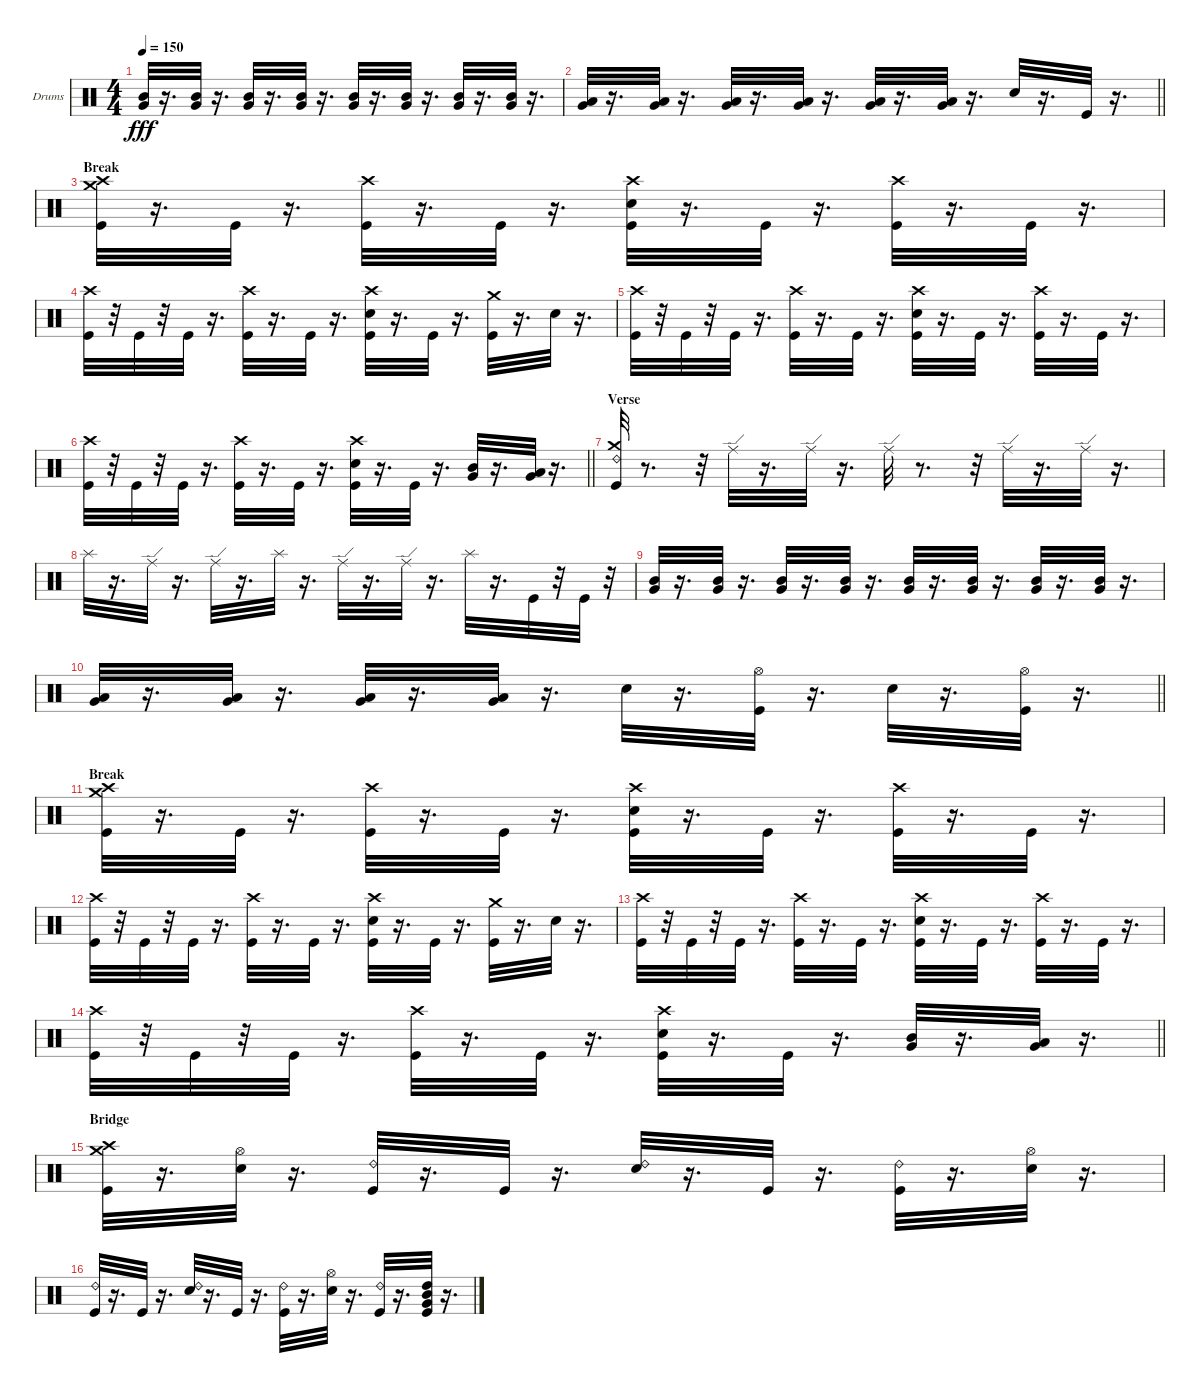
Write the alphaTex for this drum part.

\bracketExtendMode groupsimilarinstruments
\firstSystemTrackNameOrientation horizontal
\otherSystemsTrackNameOrientation horizontal
\track ("Dave McClain" "Drums") {mute instrument percussion}
\staff {score}
\articulation defaults
\ts (4 4)
\tempo 150
\clef neutral
\ks c
("Mid Tom (hit)" "Very Low Tom (hit)").32{dy fff} r.16{d} ("Mid Tom (hit)" "Very Low Tom (hit)").32 r.16{d} ("Mid Tom (hit)" "Very Low Tom (hit)").32 r.16{d} ("Mid Tom (hit)" "Very Low Tom (hit)").32 r.16{d} ("Mid Tom (hit)" "Very Low Tom (hit)").32 r.16{d} ("Mid Tom (hit)" "Very Low Tom (hit)").32 r.16{d} ("Mid Tom (hit)" "Very Low Tom (hit)").32 r.16{d} ("Mid Tom (hit)" "Very Low Tom (hit)").32 r.16{d} |
\barLineRight lightlight
("Low Tom (hit)" "Very Low Tom (hit)").32 r.16{d} ("Low Tom (hit)" "Very Low Tom (hit)").32 r.16{d} ("Low Tom (hit)" "Very Low Tom (hit)").32 r.16{d} ("Low Tom (hit)" "Very Low Tom (hit)").32 r.16{d} ("Low Tom (hit)" "Very Low Tom (hit)").32 r.16{d} ("Low Tom (hit)" "Very Low Tom (hit)").32 r.16{d} "Snare (hit) 2".32 r.16{d} "Kick (hit)".32 r.16{d} |
\section ("" "Break")
("Crash high (hit)" "Crash medium (hit)" "Kick (hit)").32 r.16{d} "Kick (hit)".32 r.16{d} ("Crash high (hit)" "Kick (hit)").32 r.16{d} "Kick (hit)".32 r.16{d} ("Snare (hit) 2" "Crash high (hit)" "Kick (hit)").32 r.16{d} "Kick (hit)".32 r.16{d} ("Crash high (hit)" "Kick (hit)").32 r.16{d} "Kick (hit)".32 r.16{d} |
("Crash high (hit)" "Kick (hit)").32 r.32 "Kick (hit)".32 r.32 "Kick (hit)".32 r.16{d} ("Crash high (hit)" "Kick (hit)").32 r.16{d} "Kick (hit)".32 r.16{d} ("Snare (hit) 2" "Crash high (hit)" "Kick (hit)").32 r.16{d} "Kick (hit)".32 r.16{d} ("Crash medium (hit)" "Kick (hit)").32 r.16{d} "Snare (hit) 2".32 r.16{d} |
("Crash high (hit)" "Kick (hit)").32 r.32 "Kick (hit)".32 r.32 "Kick (hit)".32 r.16{d} ("Kick (hit)" "Crash high (hit)").32 r.16{d} "Kick (hit)".32 r.16{d} ("Snare (hit) 2" "Kick (hit)" "Crash high (hit)").32 r.16{d} "Kick (hit)".32 r.16{d} ("Crash high (hit)" "Kick (hit)").32 r.16{d} "Kick (hit)".32 r.16{d} |
\barLineRight lightlight
("Crash high (hit)" "Kick (hit)").32 r.32 "Kick (hit)".32 r.32 "Kick (hit)".32 r.16{d} ("Crash high (hit)" "Kick (hit)").32 r.16{d} "Kick (hit)".32 r.16{d} ("Snare (hit) 2" "Crash high (hit)" "Kick (hit)").32 r.16{d} "Kick (hit)".32 r.16{d} ("Mid Tom (hit)" "Very Low Tom (hit)").32 r.16{d} ("Very Low Tom (hit)" "Low Tom (hit)").32 r.16{d} |
\section ("" "Verse")
("Ride (bell) 2" "Crash medium (hit)" "Kick (hit)").32 r.8{d} r.32 "Ride (edge)".32 r.16{d} "Ride (edge)".32 r.16{d} "Ride (edge)".32 r.8{d} r.32 "Ride (edge)".32 r.16{d} "Ride (edge)".32 r.16{d} |
"Splash (hit)".32 r.16{d} "Ride (edge)".32 r.16{d} "Ride (edge)".32 r.16{d} "Splash (hit)".32 r.16{d} "Ride (edge)".32 r.16{d} "Ride (edge)".32 r.16{d} "Splash (hit)".32 r.16{d} "Kick (hit)".32 r.32 "Kick (hit)".32 r.32 |
("Mid Tom (hit)" "Very Low Tom (hit)").32 r.16{d} ("Mid Tom (hit)" "Very Low Tom (hit)").32 r.16{d} ("Mid Tom (hit)" "Very Low Tom (hit)").32 r.16{d} ("Mid Tom (hit)" "Very Low Tom (hit)").32 r.16{d} ("Mid Tom (hit)" "Very Low Tom (hit)").32 r.16{d} ("Mid Tom (hit)" "Very Low Tom (hit)").32 r.16{d} ("Mid Tom (hit)" "Very Low Tom (hit)").32 r.16{d} ("Mid Tom (hit)" "Very Low Tom (hit)").32 r.16{d} |
\barLineRight lightlight
("Low Tom (hit)" "Very Low Tom (hit)").32 r.16{d} ("Low Tom (hit)" "Very Low Tom (hit)").32 r.16{d} ("Low Tom (hit)" "Very Low Tom (hit)").32 r.16{d} ("Low Tom (hit)" "Very Low Tom (hit)").32 r.16{d} "Snare (hit) 2".32 r.16{d} ("Hi-Hat (open)" "Kick (hit)").32 r.16{d} "Snare (hit) 2".32 r.16{d} ("Hi-Hat (open)" "Kick (hit)").32 r.16{d} |
\section ("" "Break")
("Crash high (hit)" "Crash medium (hit)" "Kick (hit)").32 r.16{d} "Kick (hit)".32 r.16{d} ("Crash high (hit)" "Kick (hit)").32 r.16{d} "Kick (hit)".32 r.16{d} ("Snare (hit) 2" "Crash high (hit)" "Kick (hit)").32 r.16{d} "Kick (hit)".32 r.16{d} ("Crash high (hit)" "Kick (hit)").32 r.16{d} "Kick (hit)".32 r.16{d} |
("Crash high (hit)" "Kick (hit)").32 r.32 "Kick (hit)".32 r.32 "Kick (hit)".32 r.16{d} ("Crash high (hit)" "Kick (hit)").32 r.16{d} "Kick (hit)".32 r.16{d} ("Snare (hit) 2" "Crash high (hit)" "Kick (hit)").32 r.16{d} "Kick (hit)".32 r.16{d} ("Crash medium (hit)" "Kick (hit)").32 r.16{d} "Snare (hit) 2".32 r.16{d} |
("Crash high (hit)" "Kick (hit)").32 r.32 "Kick (hit)".32 r.32 "Kick (hit)".32 r.16{d} ("Kick (hit)" "Crash high (hit)").32 r.16{d} "Kick (hit)".32 r.16{d} ("Snare (hit) 2" "Kick (hit)" "Crash high (hit)").32 r.16{d} "Kick (hit)".32 r.16{d} ("Crash high (hit)" "Kick (hit)").32 r.16{d} "Kick (hit)".32 r.16{d} |
\barLineRight lightlight
("Crash high (hit)" "Kick (hit)").32 r.32 "Kick (hit)".32 r.32 "Kick (hit)".32 r.16{d} ("Crash high (hit)" "Kick (hit)").32 r.16{d} "Kick (hit)".32 r.16{d} ("Snare (hit) 2" "Crash high (hit)" "Kick (hit)").32 r.16{d} "Kick (hit)".32 r.16{d} ("Mid Tom (hit)" "Very Low Tom (hit)").32 r.16{d} ("Very Low Tom (hit)" "Low Tom (hit)").32 r.16{d} |
\section ("" "Bridge")
("Crash high (hit)" "Crash medium (hit)" "Kick (hit)").32 r.16{d} ("Hi-Hat (open)" "Snare (hit) 2").32 r.16{d} ("Ride (bell) 2" "Kick (hit)").32 r.16{d} "Kick (hit)".32 r.16{d} ("Ride (bell) 2" "Snare (hit) 2").32 r.16{d} "Kick (hit)".32 r.16{d} ("Ride (bell) 2" "Kick (hit)").32 r.16{d} ("Hi-Hat (open)" "Snare (hit) 2").32 r.16{d} |
("Ride (bell) 2" "Kick (hit)").32 r.16{d} "Kick (hit)".32 r.16{d} ("Ride (bell) 2" "Snare (hit) 2").32 r.16{d} "Kick (hit)".32 r.16{d} ("Ride (bell) 2" "Kick (hit)").32 r.16{d} ("Hi-Hat (open)" "Snare (hit) 2").32 r.16{d} ("Ride (bell) 2" "Kick (hit)").32 r.16{d} ("High Tom (hit)" "Mid Tom (hit)" "Very Low Tom (hit)" "Kick (hit)").32 r.16{d}
